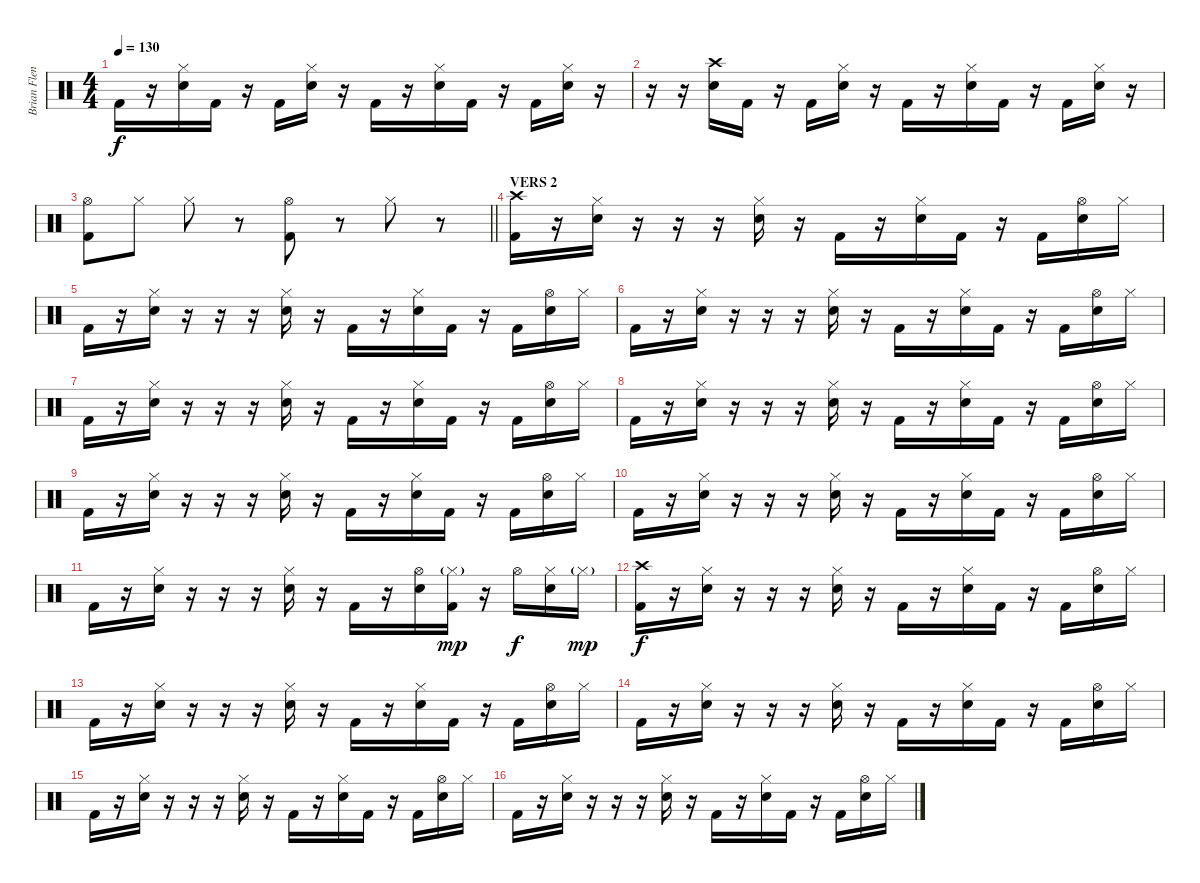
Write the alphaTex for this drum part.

\track ("Brian Flenniken" "Brian Flen") {instrument percussion}
\staff {score}
\articulation defaults
\ts (4 4)
\tempo 130
\clef neutral
\ks c "Kick (hit) 2".16{dy f}
r.16 ("Hi-Hat (closed)" "Snare (hit) 2").16 "Kick (hit) 2".16 r.16 "Kick (hit) 2".16 ("Hi-Hat (closed)" "Snare (hit) 2").16 r.16 "Kick (hit) 2".16 r.16 ("Hi-Hat (closed)" "Snare (hit) 2").16 "Kick (hit) 2".16 r.16 "Kick (hit) 2".16 ("Hi-Hat (closed)" "Snare (hit) 2").16 r.16 |
r.16 r.16 ("Crash high (hit)" "Snare (hit) 2").16 "Kick (hit) 2".16 r.16 "Kick (hit) 2".16 ("Hi-Hat (closed)" "Snare (hit) 2").16 r.16 "Kick (hit) 2".16 r.16 ("Hi-Hat (closed)" "Snare (hit) 2").16 "Kick (hit) 2".16 r.16 "Kick (hit) 2".16 ("Hi-Hat (closed)" "Snare (hit) 2").16 r.16 |
\barLineRight lightlight
("Hi-Hat (open)" "Kick (hit) 2").8 "Hi-Hat (closed)".8 "Hi-Hat (closed)".8 r.8 ("Hi-Hat (open)" "Kick (hit) 2").8 r.8 "Hi-Hat (closed)".8 r.8 |
\section ("" "VERS 2")
("Crash high (hit)" "Kick (hit) 2").16 r.16 ("Hi-Hat (closed)" "Snare (hit) 2").16 r.16 r.16 r.16 ("Hi-Hat (closed)" "Snare (hit) 2").16 r.16 "Kick (hit) 2".16 r.16 ("Hi-Hat (closed)" "Snare (hit) 2").16 "Kick (hit) 2".16 r.16 "Kick (hit) 2".16 ("Hi-Hat (open)" "Snare (hit) 2").16 "Hi-Hat (closed)".16 |
"Kick (hit) 2".16 r.16 ("Hi-Hat (closed)" "Snare (hit) 2").16 r.16 r.16 r.16 ("Hi-Hat (closed)" "Snare (hit) 2").16 r.16 "Kick (hit) 2".16 r.16 ("Hi-Hat (closed)" "Snare (hit) 2").16 "Kick (hit) 2".16 r.16 "Kick (hit) 2".16 ("Hi-Hat (open)" "Snare (hit) 2").16 "Hi-Hat (closed)".16 |
"Kick (hit) 2".16 r.16 ("Hi-Hat (closed)" "Snare (hit) 2").16 r.16 r.16 r.16 ("Hi-Hat (closed)" "Snare (hit) 2").16 r.16 "Kick (hit) 2".16 r.16 ("Hi-Hat (closed)" "Snare (hit) 2").16 "Kick (hit) 2".16 r.16 "Kick (hit) 2".16 ("Hi-Hat (open)" "Snare (hit) 2").16 "Hi-Hat (closed)".16 |
"Kick (hit) 2".16 r.16 ("Hi-Hat (closed)" "Snare (hit) 2").16 r.16 r.16 r.16 ("Hi-Hat (closed)" "Snare (hit) 2").16 r.16 "Kick (hit) 2".16 r.16 ("Hi-Hat (closed)" "Snare (hit) 2").16 "Kick (hit) 2".16 r.16 "Kick (hit) 2".16 ("Hi-Hat (open)" "Snare (hit) 2").16 "Hi-Hat (closed)".16 |
"Kick (hit) 2".16 r.16 ("Hi-Hat (closed)" "Snare (hit) 2").16 r.16 r.16 r.16 ("Hi-Hat (closed)" "Snare (hit) 2").16 r.16 "Kick (hit) 2".16 r.16 ("Hi-Hat (closed)" "Snare (hit) 2").16 "Kick (hit) 2".16 r.16 "Kick (hit) 2".16 ("Hi-Hat (open)" "Snare (hit) 2").16 "Hi-Hat (closed)".16 |
"Kick (hit) 2".16 r.16 ("Hi-Hat (closed)" "Snare (hit) 2").16 r.16 r.16 r.16 ("Hi-Hat (closed)" "Snare (hit) 2").16 r.16 "Kick (hit) 2".16 r.16 ("Hi-Hat (closed)" "Snare (hit) 2").16 "Kick (hit) 2".16 r.16 "Kick (hit) 2".16 ("Hi-Hat (open)" "Snare (hit) 2").16 "Hi-Hat (closed)".16 |
"Kick (hit) 2".16 r.16 ("Hi-Hat (closed)" "Snare (hit) 2").16 r.16 r.16 r.16 ("Hi-Hat (closed)" "Snare (hit) 2").16 r.16 "Kick (hit) 2".16 r.16 ("Hi-Hat (closed)" "Snare (hit) 2").16 "Kick (hit) 2".16 r.16 "Kick (hit) 2".16 ("Hi-Hat (open)" "Snare (hit) 2").16 "Hi-Hat (closed)".16 |
"Kick (hit) 2".16 r.16 ("Hi-Hat (closed)" "Snare (hit) 2").16 r.16 r.16 r.16 ("Hi-Hat (closed)" "Snare (hit) 2").16 r.16 "Kick (hit) 2".16 r.16 ("Hi-Hat (open)" "Snare (hit) 2").16 ("Hi-Hat (closed)"{g} "Kick (hit) 2").16{dy mp} r.16 "Hi-Hat (open)".16{dy f} ("Hi-Hat (closed)" "Snare (hit) 2").16 "Hi-Hat (closed)"{g}.16{dy mp} |
("Crash high (hit)" "Kick (hit) 2").16{dy f} r.16 ("Hi-Hat (closed)" "Snare (hit) 2").16 r.16 r.16 r.16 ("Hi-Hat (closed)" "Snare (hit) 2").16 r.16 "Kick (hit) 2".16 r.16 ("Hi-Hat (closed)" "Snare (hit) 2").16 "Kick (hit) 2".16 r.16 "Kick (hit) 2".16 ("Hi-Hat (open)" "Snare (hit) 2").16 "Hi-Hat (closed)".16 |
"Kick (hit) 2".16 r.16 ("Hi-Hat (closed)" "Snare (hit) 2").16 r.16 r.16 r.16 ("Hi-Hat (closed)" "Snare (hit) 2").16 r.16 "Kick (hit) 2".16 r.16 ("Hi-Hat (closed)" "Snare (hit) 2").16 "Kick (hit) 2".16 r.16 "Kick (hit) 2".16 ("Hi-Hat (open)" "Snare (hit) 2").16 "Hi-Hat (closed)".16 |
"Kick (hit) 2".16 r.16 ("Hi-Hat (closed)" "Snare (hit) 2").16 r.16 r.16 r.16 ("Hi-Hat (closed)" "Snare (hit) 2").16 r.16 "Kick (hit) 2".16 r.16 ("Hi-Hat (closed)" "Snare (hit) 2").16 "Kick (hit) 2".16 r.16 "Kick (hit) 2".16 ("Hi-Hat (open)" "Snare (hit) 2").16 "Hi-Hat (closed)".16 |
"Kick (hit) 2".16 r.16 ("Hi-Hat (closed)" "Snare (hit) 2").16 r.16 r.16 r.16 ("Hi-Hat (closed)" "Snare (hit) 2").16 r.16 "Kick (hit) 2".16 r.16 ("Hi-Hat (closed)" "Snare (hit) 2").16 "Kick (hit) 2".16 r.16 "Kick (hit) 2".16 ("Hi-Hat (open)" "Snare (hit) 2").16 "Hi-Hat (closed)".16 |
"Kick (hit) 2".16 r.16 ("Hi-Hat (closed)" "Snare (hit) 2").16 r.16 r.16 r.16 ("Hi-Hat (closed)" "Snare (hit) 2").16 r.16 "Kick (hit) 2".16 r.16 ("Hi-Hat (closed)" "Snare (hit) 2").16 "Kick (hit) 2".16 r.16 "Kick (hit) 2".16 ("Hi-Hat (open)" "Snare (hit) 2").16 "Hi-Hat (closed)".16
